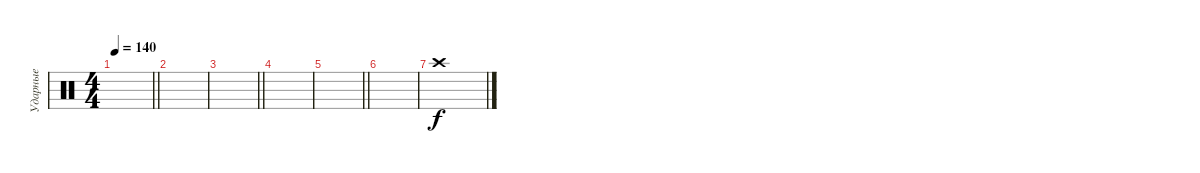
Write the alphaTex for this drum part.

\track ("Ударные" "Ударные") {instrument percussion}
\staff {score}
\articulation defaults
\ts (4 4)
\tempo 140
\clef neutral
\barLineRight lightlight
\ks c
|
|
\barLineRight lightlight
|
|
\barLineRight lightlight
|
|
"Crash high (hit)".1
